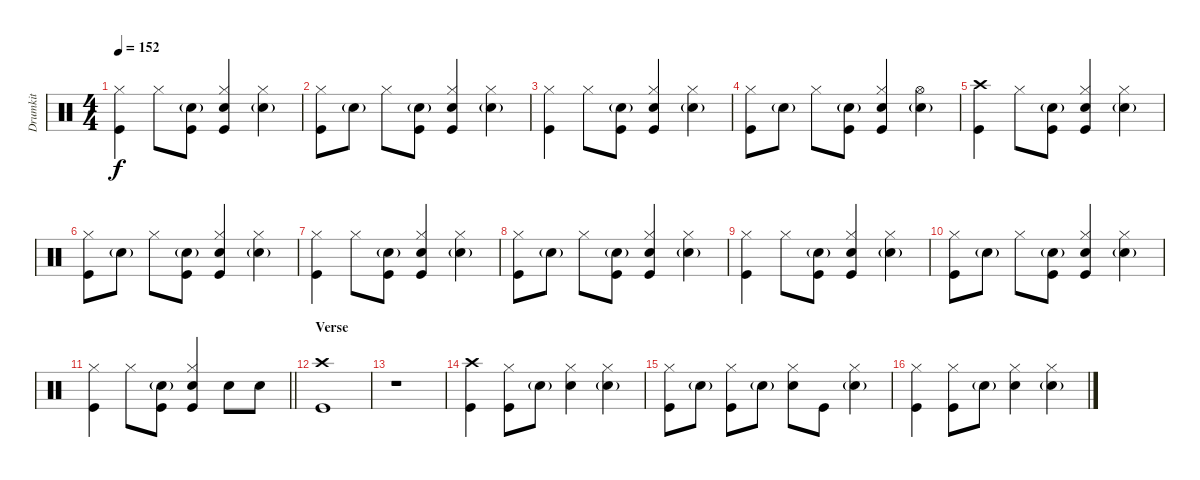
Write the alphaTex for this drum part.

\track ("Drumkit" "Drumkit") {instrument percussion}
\staff {score}
\articulation defaults
\ts (4 4)
\tempo 152
\clef neutral
\ks c
("Kick (hit)" "Hi-Hat (closed)").4{dy f} "Hi-Hat (closed)".8 ("Kick (hit)" "Snare (hit) 2"{g}).8 ("Kick (hit)" "Hi-Hat (closed)" "Snare (hit) 2").4 ("Hi-Hat (closed)" "Snare (hit) 2"{g}).4 |
("Kick (hit)" "Hi-Hat (closed)").8 "Snare (hit) 2"{g}.8 "Hi-Hat (closed)".8 ("Kick (hit)" "Snare (hit) 2"{g}).8 ("Kick (hit)" "Hi-Hat (closed)" "Snare (hit) 2").4 ("Hi-Hat (closed)" "Snare (hit) 2"{g}).4 |
("Kick (hit)" "Hi-Hat (closed)").4 "Hi-Hat (closed)".8 ("Kick (hit)" "Snare (hit) 2"{g}).8 ("Kick (hit)" "Hi-Hat (closed)" "Snare (hit) 2").4 ("Hi-Hat (closed)" "Snare (hit) 2"{g}).4 |
("Kick (hit)" "Hi-Hat (closed)").8 "Snare (hit) 2"{g}.8 "Hi-Hat (closed)".8 ("Kick (hit)" "Snare (hit) 2"{g}).8 ("Kick (hit)" "Hi-Hat (closed)" "Snare (hit) 2").4 ("Hi-Hat (open)" "Snare (hit) 2"{g}).4 |
("Kick (hit)" "Crash high (hit)").4 "Hi-Hat (closed)".8 ("Kick (hit)" "Snare (hit) 2"{g}).8 ("Kick (hit)" "Hi-Hat (closed)" "Snare (hit) 2").4 ("Hi-Hat (closed)" "Snare (hit) 2"{g}).4 |
("Kick (hit)" "Hi-Hat (closed)").8 "Snare (hit) 2"{g}.8 "Hi-Hat (closed)".8 ("Kick (hit)" "Snare (hit) 2"{g}).8 ("Kick (hit)" "Hi-Hat (closed)" "Snare (hit) 2").4 ("Hi-Hat (closed)" "Snare (hit) 2"{g}).4 |
("Kick (hit)" "Hi-Hat (closed)").4 "Hi-Hat (closed)".8 ("Kick (hit)" "Snare (hit) 2"{g}).8 ("Kick (hit)" "Hi-Hat (closed)" "Snare (hit) 2").4 ("Hi-Hat (closed)" "Snare (hit) 2"{g}).4 |
("Kick (hit)" "Hi-Hat (closed)").8 "Snare (hit) 2"{g}.8 "Hi-Hat (closed)".8 ("Kick (hit)" "Snare (hit) 2"{g}).8 ("Kick (hit)" "Hi-Hat (closed)" "Snare (hit) 2").4 ("Hi-Hat (closed)" "Snare (hit) 2"{g}).4 |
("Kick (hit)" "Hi-Hat (closed)").4 "Hi-Hat (closed)".8 ("Kick (hit)" "Snare (hit) 2"{g}).8 ("Kick (hit)" "Hi-Hat (closed)" "Snare (hit) 2").4 ("Hi-Hat (closed)" "Snare (hit) 2"{g}).4 |
("Kick (hit)" "Hi-Hat (closed)").8 "Snare (hit) 2"{g}.8 "Hi-Hat (closed)".8 ("Kick (hit)" "Snare (hit) 2"{g}).8 ("Kick (hit)" "Hi-Hat (closed)" "Snare (hit) 2").4 ("Hi-Hat (closed)" "Snare (hit) 2"{g}).4 |
\barLineRight lightlight
("Kick (hit)" "Hi-Hat (closed)").4 "Hi-Hat (closed)".8 ("Kick (hit)" "Snare (hit) 2"{g}).8 ("Kick (hit)" "Hi-Hat (closed)" "Snare (hit) 2").4 "Snare (hit) 2".8 "Snare (hit) 2".8 |
\section ("" "Verse")
("Kick (hit)" "Crash high (hit)").1 |
r.1 |
("Kick (hit)" "Crash high (hit)").4 ("Hi-Hat (closed)" "Kick (hit)").8 "Snare (hit) 2"{g}.8 ("Hi-Hat (closed)" "Snare (hit) 2").4 ("Hi-Hat (closed)" "Snare (hit) 2"{g}).4 |
("Kick (hit)" "Hi-Hat (closed)").8 "Snare (hit) 2"{g}.8 ("Hi-Hat (closed)" "Kick (hit)").8 "Snare (hit) 2"{g}.8 ("Hi-Hat (closed)" "Snare (hit) 2").8 "Kick (hit)".8 ("Hi-Hat (closed)" "Snare (hit) 2"{g}).4 |
("Kick (hit)" "Hi-Hat (closed)").4 ("Hi-Hat (closed)" "Kick (hit)").8 "Snare (hit) 2"{g}.8 ("Hi-Hat (closed)" "Snare (hit) 2").4 ("Hi-Hat (closed)" "Snare (hit) 2"{g}).4
